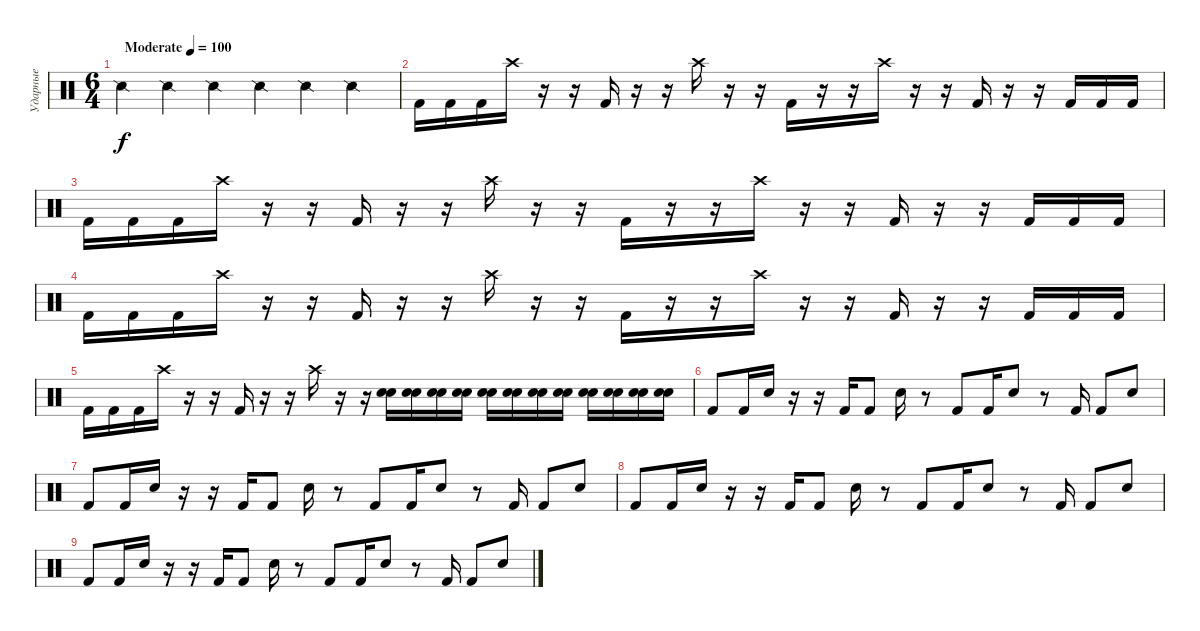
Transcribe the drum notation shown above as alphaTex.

\track ("Ударные" "Ударные") {instrument percussion}
\staff {score}
\articulation defaults
\ts (6 4)
\tempo (100 "Moderate")
\clef neutral
\ks c "Snare (side stick) 2".4{dy f} "Snare (side stick) 2".4 "Snare (side stick) 2".4 "Snare (side stick) 2".4 "Snare (side stick) 2".4 "Snare (side stick) 2".4
|
"Kick (hit) 2".16 "Kick (hit) 2".16 "Kick (hit) 2".16 "Crash high (hit)".16 r.16 r.16 "Kick (hit) 2".16 r.16 r.16 "Crash high (hit)".16 r.16 r.16 "Kick (hit) 2".16 r.16 r.16 "Crash high (hit)".16 r.16 r.16 "Kick (hit) 2".16 r.16 r.16 "Kick (hit) 2".16 "Kick (hit) 2".16 "Kick (hit) 2".16 |
"Kick (hit) 2".16 "Kick (hit) 2".16 "Kick (hit) 2".16 "Crash high (hit)".16 r.16 r.16 "Kick (hit) 2".16 r.16 r.16 "Crash high (hit)".16 r.16 r.16 "Kick (hit) 2".16 r.16 r.16 "Crash high (hit)".16 r.16 r.16 "Kick (hit) 2".16 r.16 r.16 "Kick (hit) 2".16 "Kick (hit) 2".16 "Kick (hit) 2".16 |
"Kick (hit) 2".16 "Kick (hit) 2".16 "Kick (hit) 2".16 "Crash high (hit)".16 r.16 r.16 "Kick (hit) 2".16 r.16 r.16 "Crash high (hit)".16 r.16 r.16 "Kick (hit) 2".16 r.16 r.16 "Crash high (hit)".16 r.16 r.16 "Kick (hit) 2".16 r.16 r.16 "Kick (hit) 2".16 "Kick (hit) 2".16 "Kick (hit) 2".16 |
"Kick (hit) 2".16 "Kick (hit) 2".16 "Kick (hit) 2".16 "Crash high (hit)".16 r.16 r.16 "Kick (hit) 2".16 r.16 r.16 "Crash high (hit)".16 r.16 r.16 ("Snare (hit) 2" "Electric Snare (hit)").16 ("Snare (hit) 2" "Electric Snare (hit)").16 ("Snare (hit) 2" "Electric Snare (hit)").16 ("Snare (hit) 2" "Electric Snare (hit)").16 ("Snare (hit) 2" "Electric Snare (hit)").16 ("Snare (hit) 2" "Electric Snare (hit)").16 ("Snare (hit) 2" "Electric Snare (hit)").16 ("Snare (hit) 2" "Electric Snare (hit)").16 ("Snare (hit) 2" "Electric Snare (hit)").16 ("Snare (hit) 2" "Electric Snare (hit)").16 ("Snare (hit) 2" "Electric Snare (hit)").16 ("Snare (hit) 2" "Electric Snare (hit)").16 |
"Kick (hit) 2".8 "Kick (hit) 2".16 "Electric Snare (hit)".16 r.16 r.16 "Kick (hit) 2".16 "Kick (hit) 2".8 "Electric Snare (hit)".16 r.8 "Kick (hit) 2".8 "Kick (hit) 2".16 "Electric Snare (hit)".8 r.8 "Kick (hit) 2".16 "Kick (hit) 2".8 "Electric Snare (hit)".8 |
"Kick (hit) 2".8 "Kick (hit) 2".16 "Electric Snare (hit)".16 r.16 r.16 "Kick (hit) 2".16 "Kick (hit) 2".8 "Electric Snare (hit)".16 r.8 "Kick (hit) 2".8 "Kick (hit) 2".16 "Electric Snare (hit)".8 r.8 "Kick (hit) 2".16 "Kick (hit) 2".8 "Electric Snare (hit)".8 |
"Kick (hit) 2".8 "Kick (hit) 2".16 "Electric Snare (hit)".16 r.16 r.16 "Kick (hit) 2".16 "Kick (hit) 2".8 "Electric Snare (hit)".16 r.8 "Kick (hit) 2".8 "Kick (hit) 2".16 "Electric Snare (hit)".8 r.8 "Kick (hit) 2".16 "Kick (hit) 2".8 "Electric Snare (hit)".8 |
"Kick (hit) 2".8 "Kick (hit) 2".16 "Electric Snare (hit)".16 r.16 r.16 "Kick (hit) 2".16 "Kick (hit) 2".8 "Electric Snare (hit)".16 r.8 "Kick (hit) 2".8 "Kick (hit) 2".16 "Electric Snare (hit)".8 r.8 "Kick (hit) 2".16 "Kick (hit) 2".8 "Electric Snare (hit)".8
